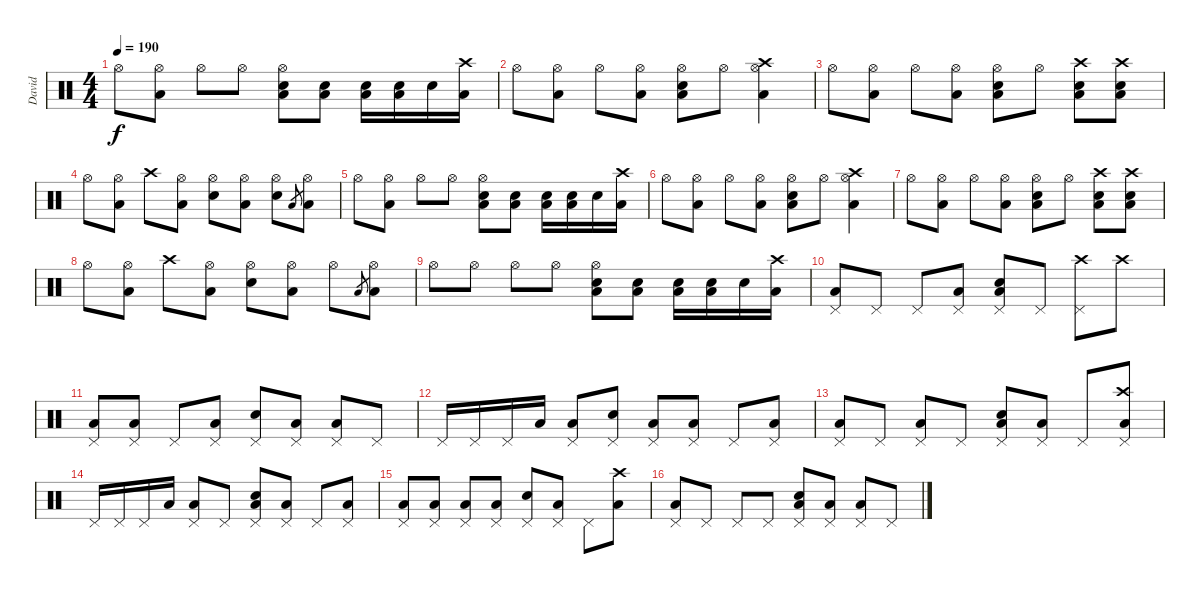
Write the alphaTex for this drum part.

\track ("David" "David") {instrument percussion}
\staff {score}
\articulation defaults
\ts (4 4)
\tempo 190
\clef neutral
\ks c "Hi-Hat (open)".8{dy f}
("Hi-Hat (open)" "Low Tom (hit)").8 "Hi-Hat (open)".8 "Hi-Hat (open)".8 ("Hi-Hat (open)" "Electric Snare (hit)" "Low Tom (hit)").8 ("Electric Snare (hit)" "Low Tom (hit)").8 ("Electric Snare (hit)" "Low Tom (hit)").16 ("Electric Snare (hit)" "Low Tom (hit)").16 "Electric Snare (hit)".16 ("Crash high (hit)" "Low Tom (hit)").16 |
"Hi-Hat (open)".8 ("Hi-Hat (open)" "Low Tom (hit)").8 "Hi-Hat (open)".8 ("Hi-Hat (open)" "Low Tom (hit)").8 ("Hi-Hat (open)" "Electric Snare (hit)" "Low Tom (hit)").8 "Hi-Hat (open)".8 ("Crash high (hit)" "Hi-Hat (open)" "Low Tom (hit)").4 |
"Hi-Hat (open)".8 ("Hi-Hat (open)" "Low Tom (hit)").8 "Hi-Hat (open)".8 ("Hi-Hat (open)" "Low Tom (hit)").8 ("Hi-Hat (open)" "Electric Snare (hit)" "Low Tom (hit)").8 "Hi-Hat (open)".8 ("Crash high (hit)" "Electric Snare (hit)" "Low Tom (hit)").8 ("Crash high (hit)" "Electric Snare (hit)" "Low Tom (hit)").8 |
"Hi-Hat (open)".8 ("Hi-Hat (open)" "Low Tom (hit)").8 "Crash high (hit)".8 ("Hi-Hat (open)" "Low Tom (hit)").8 ("Hi-Hat (open)" "Electric Snare (hit)").8 ("Hi-Hat (open)" "Low Tom (hit)").8 ("Hi-Hat (open)" "Electric Snare (hit)").8 "Low Tom (hit)".8{gr} ("Hi-Hat (open)" "Low Tom (hit)").8 |
"Hi-Hat (open)".8 ("Hi-Hat (open)" "Low Tom (hit)").8 "Hi-Hat (open)".8 "Hi-Hat (open)".8 ("Hi-Hat (open)" "Electric Snare (hit)" "Low Tom (hit)").8 ("Electric Snare (hit)" "Low Tom (hit)").8 ("Electric Snare (hit)" "Low Tom (hit)").16 ("Electric Snare (hit)" "Low Tom (hit)").16 "Electric Snare (hit)".16 ("Crash high (hit)" "Low Tom (hit)").16 |
"Hi-Hat (open)".8 ("Hi-Hat (open)" "Low Tom (hit)").8 "Hi-Hat (open)".8 ("Hi-Hat (open)" "Low Tom (hit)").8 ("Hi-Hat (open)" "Electric Snare (hit)" "Low Tom (hit)").8 "Hi-Hat (open)".8 ("Crash high (hit)" "Hi-Hat (open)" "Low Tom (hit)").4 |
"Hi-Hat (open)".8 ("Hi-Hat (open)" "Low Tom (hit)").8 "Hi-Hat (open)".8 ("Hi-Hat (open)" "Low Tom (hit)").8 ("Hi-Hat (open)" "Electric Snare (hit)" "Low Tom (hit)").8 "Hi-Hat (open)".8 ("Crash high (hit)" "Electric Snare (hit)" "Low Tom (hit)").8 ("Crash high (hit)" "Electric Snare (hit)" "Low Tom (hit)").8 |
"Hi-Hat (open)".8 ("Hi-Hat (open)" "Low Tom (hit)").8 "Crash high (hit)".8 ("Hi-Hat (open)" "Low Tom (hit)").8 ("Hi-Hat (open)" "Electric Snare (hit)").8 ("Hi-Hat (open)" "Low Tom (hit)").8 "Hi-Hat (open)".8 "Low Tom (hit)".8{gr} ("Hi-Hat (open)" "Low Tom (hit)").8 |
"Hi-Hat (open)".8 "Hi-Hat (open)".8 "Hi-Hat (open)".8 "Hi-Hat (open)".8 ("Hi-Hat (open)" "Electric Snare (hit)" "Low Tom (hit)").8 ("Electric Snare (hit)" "Low Tom (hit)").8 ("Electric Snare (hit)" "Low Tom (hit)").16 ("Electric Snare (hit)" "Low Tom (hit)").16 "Electric Snare (hit)".16 ("Crash high (hit)" "Low Tom (hit)").16 |
("Pedal Hi-Hat (hit)" "Low Tom (hit)").8 "Pedal Hi-Hat (hit)".8 "Pedal Hi-Hat (hit)".8 ("Pedal Hi-Hat (hit)" "Low Tom (hit)").8 ("Pedal Hi-Hat (hit)" "Electric Snare (hit)" "Low Tom (hit)").8 "Pedal Hi-Hat (hit)".8 ("Crash high (hit)" "Pedal Hi-Hat (hit)").8 "Crash high (hit)".8 |
("Pedal Hi-Hat (hit)" "Low Tom (hit)").8 ("Pedal Hi-Hat (hit)" "Low Tom (hit)").8 "Pedal Hi-Hat (hit)".8 ("Pedal Hi-Hat (hit)" "Low Tom (hit)").8 ("Pedal Hi-Hat (hit)" "Electric Snare (hit)").8 ("Pedal Hi-Hat (hit)" "Low Tom (hit)").8 ("Pedal Hi-Hat (hit)" "Low Tom (hit)").8 "Pedal Hi-Hat (hit)".8 |
"Pedal Hi-Hat (hit)".16 "Pedal Hi-Hat (hit)".16 "Pedal Hi-Hat (hit)".16 "Low Tom (hit)".16 ("Pedal Hi-Hat (hit)" "Low Tom (hit)").8 ("Pedal Hi-Hat (hit)" "Electric Snare (hit)").8 ("Pedal Hi-Hat (hit)" "Low Tom (hit)").8 ("Pedal Hi-Hat (hit)" "Low Tom (hit)").8 "Pedal Hi-Hat (hit)".8 ("Pedal Hi-Hat (hit)" "Low Tom (hit)").8 |
("Pedal Hi-Hat (hit)" "Low Tom (hit)").8 "Pedal Hi-Hat (hit)".8 ("Pedal Hi-Hat (hit)" "Low Tom (hit)").8 "Pedal Hi-Hat (hit)".8 ("Pedal Hi-Hat (hit)" "Electric Snare (hit)" "Low Tom (hit)").8 ("Pedal Hi-Hat (hit)" "Low Tom (hit)").8 "Pedal Hi-Hat (hit)".8 ("Crash high (hit)" "Pedal Hi-Hat (hit)" "Low Tom (hit)").8 |
"Pedal Hi-Hat (hit)".16 "Pedal Hi-Hat (hit)".16 "Pedal Hi-Hat (hit)".16 "Low Tom (hit)".16 ("Pedal Hi-Hat (hit)" "Low Tom (hit)").8 "Pedal Hi-Hat (hit)".8 ("Pedal Hi-Hat (hit)" "Electric Snare (hit)" "Low Tom (hit)").8 ("Pedal Hi-Hat (hit)" "Low Tom (hit)").8 "Pedal Hi-Hat (hit)".8 ("Pedal Hi-Hat (hit)" "Low Tom (hit)").8 |
("Pedal Hi-Hat (hit)" "Low Tom (hit)").8 ("Pedal Hi-Hat (hit)" "Low Tom (hit)").8 ("Pedal Hi-Hat (hit)" "Low Tom (hit)").8 ("Pedal Hi-Hat (hit)" "Low Tom (hit)").8 ("Pedal Hi-Hat (hit)" "Electric Snare (hit)").8 ("Pedal Hi-Hat (hit)" "Low Tom (hit)").8 "Pedal Hi-Hat (hit)".8 ("Crash high (hit)" "Low Tom (hit)").8 |
("Pedal Hi-Hat (hit)" "Low Tom (hit)").8 "Pedal Hi-Hat (hit)".8 "Pedal Hi-Hat (hit)".8 "Pedal Hi-Hat (hit)".8 ("Pedal Hi-Hat (hit)" "Electric Snare (hit)" "Low Tom (hit)").8 ("Pedal Hi-Hat (hit)" "Low Tom (hit)").8 ("Pedal Hi-Hat (hit)" "Low Tom (hit)").8 "Pedal Hi-Hat (hit)".8
